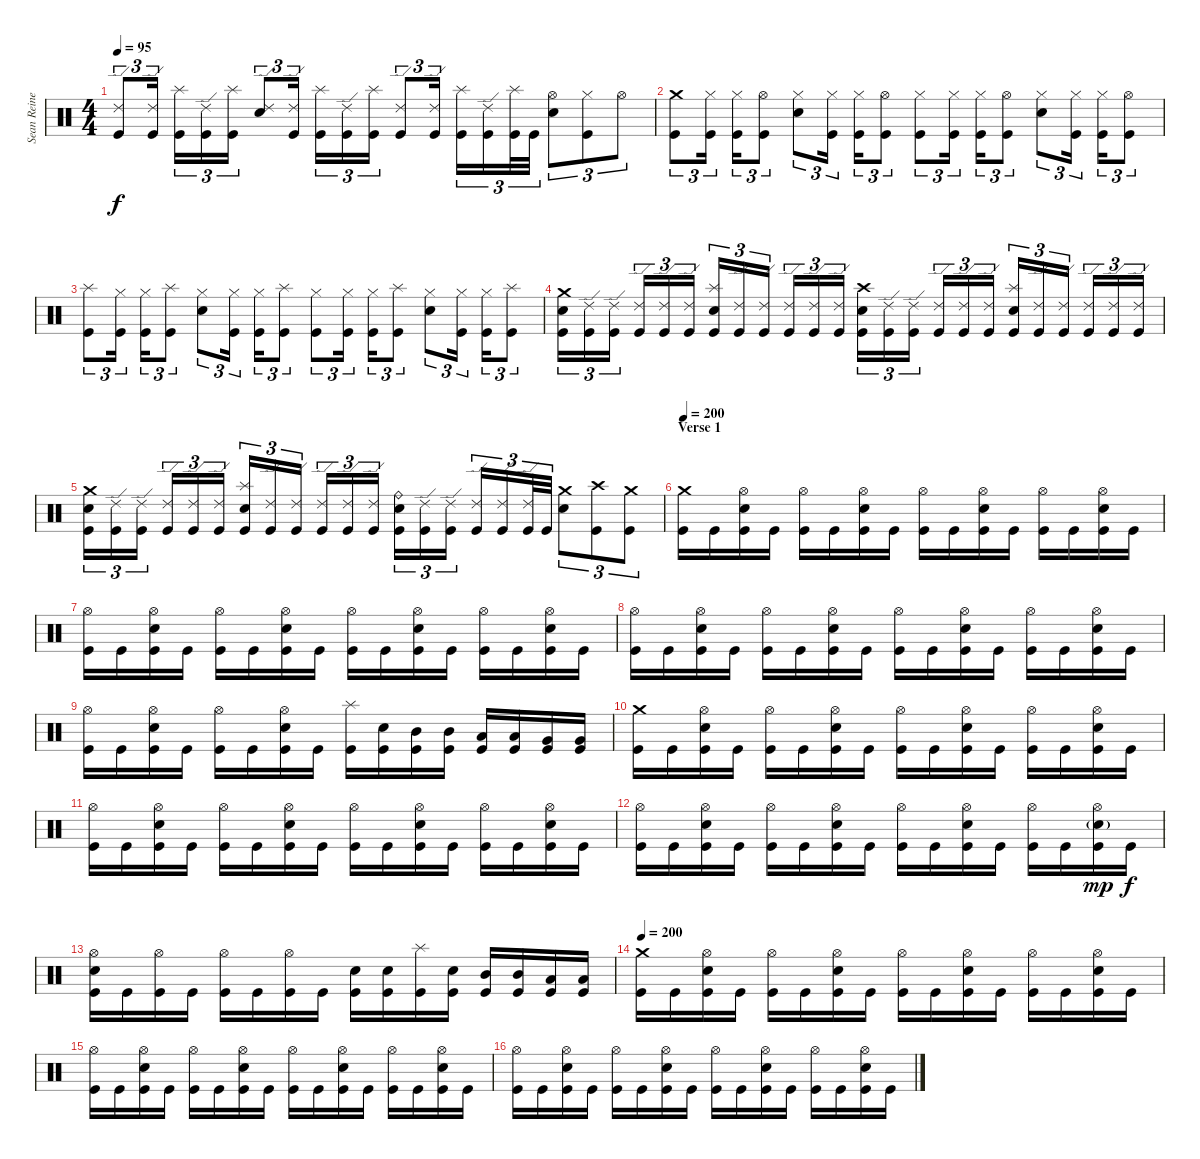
\track ("Sean Reinert " "Sean Reine") {instrument percussion}
\staff {score}
\articulation defaults
\ts (4 4)
\tempo 95
\clef neutral
\ks c
("Ride (edge) 2" "Kick (hit)").8{tu (3 2) dy f} ("Ride (edge) 2" "Kick (hit)").16{tu (3 2)} ("Splash (hit)" "Kick (hit)").16{tu (3 2)} ("Ride (edge) 2" "Kick (hit)").16{tu (3 2)} ("Splash (hit)" "Kick (hit)").16{tu (3 2)} ("Ride (edge) 2" "Electric Snare (hit)").8{tu (3 2)} ("Ride (edge) 2" "Kick (hit)").16{tu (3 2)} ("Splash (hit)" "Kick (hit)").16{tu (3 2)} ("Ride (edge) 2" "Kick (hit)").16{tu (3 2)} ("Splash (hit)" "Kick (hit)").16{tu (3 2)} ("Ride (edge) 2" "Kick (hit)").8{tu (3 2)} ("Ride (edge) 2" "Kick (hit)").16{tu (3 2)} ("Splash (hit)" "Kick (hit)").16{tu (3 2)} ("Ride (edge) 2" "Kick (hit)").16{tu (3 2)} ("Splash (hit)" "Kick (hit)").32{tu (3 2)} "Kick (hit)".32{tu (3 2)} ("Hi-Hat (open)" "Electric Snare (hit)").8{tu (3 2)} ("Hi-Hat (closed)" "Kick (hit)").8{tu (3 2)} "Hi-Hat (open)".8{tu (3 2)} |
("Crash medium (hit)" "Kick (hit)").8{tu (3 2)} ("Hi-Hat (closed)" "Kick (hit)").16{tu (3 2)} ("Hi-Hat (closed)" "Kick (hit)").16{tu (3 2)} ("Hi-Hat (open)" "Kick (hit)").8{tu (3 2)} ("Hi-Hat (closed)" "Electric Snare (hit)").8{tu (3 2)} ("Hi-Hat (closed)" "Kick (hit)").16{tu (3 2)} ("Hi-Hat (closed)" "Kick (hit)").16{tu (3 2)} ("Hi-Hat (open)" "Kick (hit)").8{tu (3 2)} ("Hi-Hat (closed)" "Kick (hit)").8{tu (3 2)} ("Hi-Hat (closed)" "Kick (hit)").16{tu (3 2)} ("Hi-Hat (closed)" "Kick (hit)").16{tu (3 2)} ("Hi-Hat (open)" "Kick (hit)").8{tu (3 2)} ("Hi-Hat (closed)" "Electric Snare (hit)").8{tu (3 2)} ("Hi-Hat (closed)" "Kick (hit)").16{tu (3 2)} ("Hi-Hat (closed)" "Kick (hit)").16{tu (3 2)} ("Hi-Hat (open)" "Kick (hit)").8{tu (3 2)} |
("Splash (hit)" "Kick (hit)").8{tu (3 2)} ("Hi-Hat (closed)" "Kick (hit)").16{tu (3 2)} ("Hi-Hat (closed)" "Kick (hit)").16{tu (3 2)} ("Splash (hit)" "Kick (hit)").8{tu (3 2)} ("Hi-Hat (closed)" "Electric Snare (hit)").8{tu (3 2)} ("Hi-Hat (closed)" "Kick (hit)").16{tu (3 2)} ("Hi-Hat (closed)" "Kick (hit)").16{tu (3 2)} ("Splash (hit)" "Kick (hit)").8{tu (3 2)} ("Hi-Hat (closed)" "Kick (hit)").8{tu (3 2)} ("Hi-Hat (closed)" "Kick (hit)").16{tu (3 2)} ("Hi-Hat (closed)" "Kick (hit)").16{tu (3 2)} ("Splash (hit)" "Kick (hit)").8{tu (3 2)} ("Hi-Hat (closed)" "Electric Snare (hit)").8{tu (3 2)} ("Hi-Hat (closed)" "Kick (hit)").16{tu (3 2)} ("Hi-Hat (closed)" "Kick (hit)").16{tu (3 2)} ("Splash (hit)" "Kick (hit)").8{tu (3 2)} |
("Crash medium (hit)" "Electric Snare (hit)" "Kick (hit)").16{tu (3 2)} ("Ride (edge) 2" "Kick (hit)").16{tu (3 2)} ("Ride (edge) 2" "Kick (hit)").16{tu (3 2)} ("Ride (edge) 2" "Kick (hit)").16{tu (3 2)} ("Ride (edge) 2" "Kick (hit)").16{tu (3 2)} ("Ride (edge) 2" "Kick (hit)").16{tu (3 2)} ("Splash (hit)" "Electric Snare (hit)" "Kick (hit)").16{tu (3 2)} ("Ride (edge) 2" "Kick (hit)").16{tu (3 2)} ("Ride (edge) 2" "Kick (hit)").16{tu (3 2)} ("Ride (edge) 2" "Kick (hit)").16{tu (3 2)} ("Ride (edge) 2" "Kick (hit)").16{tu (3 2)} ("Ride (edge) 2" "Kick (hit)").16{tu (3 2)} ("Crash high (hit)" "Electric Snare (hit)" "Kick (hit)").16{tu (3 2)} ("Ride (edge) 2" "Kick (hit)").16{tu (3 2)} ("Ride (edge) 2" "Kick (hit)").16{tu (3 2)} ("Ride (edge) 2" "Kick (hit)").16{tu (3 2)} ("Ride (edge) 2" "Kick (hit)").16{tu (3 2)} ("Ride (edge) 2" "Kick (hit)").16{tu (3 2)} ("Splash (hit)" "Electric Snare (hit)" "Kick (hit)").16{tu (3 2)} ("Ride (edge) 2" "Kick (hit)").16{tu (3 2)} ("Ride (edge) 2" "Kick (hit)").16{tu (3 2)} ("Ride (edge) 2" "Kick (hit)").16{tu (3 2)} ("Ride (edge) 2" "Kick (hit)").16{tu (3 2)} ("Ride (edge) 2" "Kick (hit)").16{tu (3 2)} |
("Crash medium (hit)" "Electric Snare (hit)" "Kick (hit)").16{tu (3 2)} ("Ride (edge) 2" "Kick (hit)").16{tu (3 2)} ("Ride (edge) 2" "Kick (hit)").16{tu (3 2)} ("Ride (edge) 2" "Kick (hit)").16{tu (3 2)} ("Ride (edge) 2" "Kick (hit)").16{tu (3 2)} ("Ride (edge) 2" "Kick (hit)").16{tu (3 2)} ("Splash (hit)" "Electric Snare (hit)" "Kick (hit)").16{tu (3 2)} ("Ride (edge) 2" "Kick (hit)").16{tu (3 2)} ("Ride (edge) 2" "Kick (hit)").16{tu (3 2)} ("Ride (edge) 2" "Kick (hit)").16{tu (3 2)} ("Ride (edge) 2" "Kick (hit)").16{tu (3 2)} ("Ride (edge) 2" "Kick (hit)").16{tu (3 2)} ("Ride (bell)" "Electric Snare (hit)" "Kick (hit)").16{tu (3 2)} ("Ride (edge) 2" "Kick (hit)").16{tu (3 2)} ("Ride (edge) 2" "Kick (hit)").16{tu (3 2)} ("Ride (edge) 2" "Kick (hit)").16{tu (3 2)} ("Ride (edge) 2" "Kick (hit)").16{tu (3 2)} ("Ride (edge) 2" "Kick (hit)").32{tu (3 2)} "Kick (hit)".32{tu (3 2)} ("Crash medium (hit)" "Electric Snare (hit)").8{tu (3 2)} ("Crash high (hit)" "Kick (hit)").8{tu (3 2)} ("Crash medium (hit)" "Kick (hit)").8{tu (3 2)} |
\section ("" "Verse 1")
\tempo 200
("Crash medium (hit)" "Kick (hit)").16 "Kick (hit)".16 ("Hi-Hat (open)" "Electric Snare (hit)" "Kick (hit)").16 "Kick (hit)".16 ("Hi-Hat (open)" "Kick (hit)").16 "Kick (hit)".16 ("Hi-Hat (open)" "Electric Snare (hit)" "Kick (hit)").16 "Kick (hit)".16 ("Hi-Hat (open)" "Kick (hit)").16 "Kick (hit)".16 ("Hi-Hat (open)" "Electric Snare (hit)" "Kick (hit)").16 "Kick (hit)".16 ("Hi-Hat (open)" "Kick (hit)").16 "Kick (hit)".16 ("Hi-Hat (open)" "Electric Snare (hit)" "Kick (hit)").16 "Kick (hit)".16 |
("Hi-Hat (open)" "Kick (hit)").16 "Kick (hit)".16 ("Hi-Hat (open)" "Electric Snare (hit)" "Kick (hit)").16 "Kick (hit)".16 ("Hi-Hat (open)" "Kick (hit)").16 "Kick (hit)".16 ("Hi-Hat (open)" "Electric Snare (hit)" "Kick (hit)").16 "Kick (hit)".16 ("Hi-Hat (open)" "Kick (hit)").16 "Kick (hit)".16 ("Hi-Hat (open)" "Electric Snare (hit)" "Kick (hit)").16 "Kick (hit)".16 ("Hi-Hat (open)" "Kick (hit)").16 "Kick (hit)".16 ("Hi-Hat (open)" "Electric Snare (hit)" "Kick (hit)").16 "Kick (hit)".16 |
("Hi-Hat (open)" "Kick (hit)").16 "Kick (hit)".16 ("Hi-Hat (open)" "Electric Snare (hit)" "Kick (hit)").16 "Kick (hit)".16 ("Hi-Hat (open)" "Kick (hit)").16 "Kick (hit)".16 ("Hi-Hat (open)" "Electric Snare (hit)" "Kick (hit)").16 "Kick (hit)".16 ("Hi-Hat (open)" "Kick (hit)").16 "Kick (hit)".16 ("Hi-Hat (open)" "Electric Snare (hit)" "Kick (hit)").16 "Kick (hit)".16 ("Hi-Hat (open)" "Kick (hit)").16 "Kick (hit)".16 ("Hi-Hat (open)" "Electric Snare (hit)" "Kick (hit)").16 "Kick (hit)".16 |
("Hi-Hat (open)" "Kick (hit)").16 "Kick (hit)".16 ("Hi-Hat (open)" "Electric Snare (hit)" "Kick (hit)").16 "Kick (hit)".16 ("Hi-Hat (open)" "Kick (hit)").16 "Kick (hit)".16 ("Hi-Hat (open)" "Electric Snare (hit)" "Kick (hit)").16 "Kick (hit)".16 ("Splash (hit)" "Kick (hit)").16 ("Electric Snare (hit)" "Kick (hit)").16 ("Mid Tom (hit)" "Kick (hit)").16 ("Mid Tom (hit)" "Kick (hit)").16 ("Low Tom (hit)" "Kick (hit)").16 ("Low Tom (hit)" "Kick (hit)").16 ("Very Low Tom (hit)" "Kick (hit)").16 ("Very Low Tom (hit)" "Kick (hit)").16 |
("Crash medium (hit)" "Kick (hit)").16 "Kick (hit)".16 ("Hi-Hat (open)" "Electric Snare (hit)" "Kick (hit)").16 "Kick (hit)".16 ("Hi-Hat (open)" "Kick (hit)").16 "Kick (hit)".16 ("Hi-Hat (open)" "Electric Snare (hit)" "Kick (hit)").16 "Kick (hit)".16 ("Hi-Hat (open)" "Kick (hit)").16 "Kick (hit)".16 ("Hi-Hat (open)" "Electric Snare (hit)" "Kick (hit)").16 "Kick (hit)".16 ("Hi-Hat (open)" "Kick (hit)").16 "Kick (hit)".16 ("Hi-Hat (open)" "Electric Snare (hit)" "Kick (hit)").16 "Kick (hit)".16 |
("Hi-Hat (open)" "Kick (hit)").16 "Kick (hit)".16 ("Hi-Hat (open)" "Electric Snare (hit)" "Kick (hit)").16 "Kick (hit)".16 ("Hi-Hat (open)" "Kick (hit)").16 "Kick (hit)".16 ("Hi-Hat (open)" "Electric Snare (hit)" "Kick (hit)").16 "Kick (hit)".16 ("Hi-Hat (open)" "Kick (hit)").16 "Kick (hit)".16 ("Hi-Hat (open)" "Electric Snare (hit)" "Kick (hit)").16 "Kick (hit)".16 ("Hi-Hat (open)" "Kick (hit)").16 "Kick (hit)".16 ("Hi-Hat (open)" "Electric Snare (hit)" "Kick (hit)").16 "Kick (hit)".16 |
("Hi-Hat (open)" "Kick (hit)").16 "Kick (hit)".16 ("Hi-Hat (open)" "Electric Snare (hit)" "Kick (hit)").16 "Kick (hit)".16 ("Hi-Hat (open)" "Kick (hit)").16 "Kick (hit)".16 ("Hi-Hat (open)" "Electric Snare (hit)" "Kick (hit)").16 "Kick (hit)".16 ("Hi-Hat (open)" "Kick (hit)").16 "Kick (hit)".16 ("Hi-Hat (open)" "Electric Snare (hit)" "Kick (hit)").16 "Kick (hit)".16 ("Hi-Hat (open)" "Kick (hit)").16 "Kick (hit)".16 ("Hi-Hat (open)" "Electric Snare (hit)"{g} "Kick (hit)").16{dy mp} "Kick (hit)".16{dy f} |
("Hi-Hat (open)" "Electric Snare (hit)" "Kick (hit)").16 "Kick (hit)".16 ("Hi-Hat (open)" "Kick (hit)").16 "Kick (hit)".16 ("Hi-Hat (open)" "Kick (hit)").16 "Kick (hit)".16 ("Hi-Hat (open)" "Kick (hit)").16 "Kick (hit)".16 ("Electric Snare (hit)" "Kick (hit)").16 ("Electric Snare (hit)" "Kick (hit)").16 ("Splash (hit)" "Kick (hit)").16 ("Electric Snare (hit)" "Kick (hit)").16 ("Mid Tom (hit)" "Kick (hit)").16 ("Mid Tom (hit)" "Kick (hit)").16 ("Low Tom (hit)" "Kick (hit)").16 ("Low Tom (hit)" "Kick (hit)").16 |
\tempo 200
("Crash medium (hit)" "Kick (hit)").16 "Kick (hit)".16 ("Hi-Hat (open)" "Electric Snare (hit)" "Kick (hit)").16 "Kick (hit)".16 ("Hi-Hat (open)" "Kick (hit)").16 "Kick (hit)".16 ("Hi-Hat (open)" "Electric Snare (hit)" "Kick (hit)").16 "Kick (hit)".16 ("Hi-Hat (open)" "Kick (hit)").16 "Kick (hit)".16 ("Hi-Hat (open)" "Electric Snare (hit)" "Kick (hit)").16 "Kick (hit)".16 ("Hi-Hat (open)" "Kick (hit)").16 "Kick (hit)".16 ("Hi-Hat (open)" "Electric Snare (hit)" "Kick (hit)").16 "Kick (hit)".16 |
("Hi-Hat (open)" "Kick (hit)").16 "Kick (hit)".16 ("Hi-Hat (open)" "Electric Snare (hit)" "Kick (hit)").16 "Kick (hit)".16 ("Hi-Hat (open)" "Kick (hit)").16 "Kick (hit)".16 ("Hi-Hat (open)" "Electric Snare (hit)" "Kick (hit)").16 "Kick (hit)".16 ("Hi-Hat (open)" "Kick (hit)").16 "Kick (hit)".16 ("Hi-Hat (open)" "Electric Snare (hit)" "Kick (hit)").16 "Kick (hit)".16 ("Hi-Hat (open)" "Kick (hit)").16 "Kick (hit)".16 ("Hi-Hat (open)" "Electric Snare (hit)" "Kick (hit)").16 "Kick (hit)".16 |
("Hi-Hat (open)" "Kick (hit)").16 "Kick (hit)".16 ("Hi-Hat (open)" "Electric Snare (hit)" "Kick (hit)").16 "Kick (hit)".16 ("Hi-Hat (open)" "Kick (hit)").16 "Kick (hit)".16 ("Hi-Hat (open)" "Electric Snare (hit)" "Kick (hit)").16 "Kick (hit)".16 ("Hi-Hat (open)" "Kick (hit)").16 "Kick (hit)".16 ("Hi-Hat (open)" "Electric Snare (hit)" "Kick (hit)").16 "Kick (hit)".16 ("Hi-Hat (open)" "Kick (hit)").16 "Kick (hit)".16 ("Hi-Hat (open)" "Electric Snare (hit)" "Kick (hit)").16 "Kick (hit)".16
